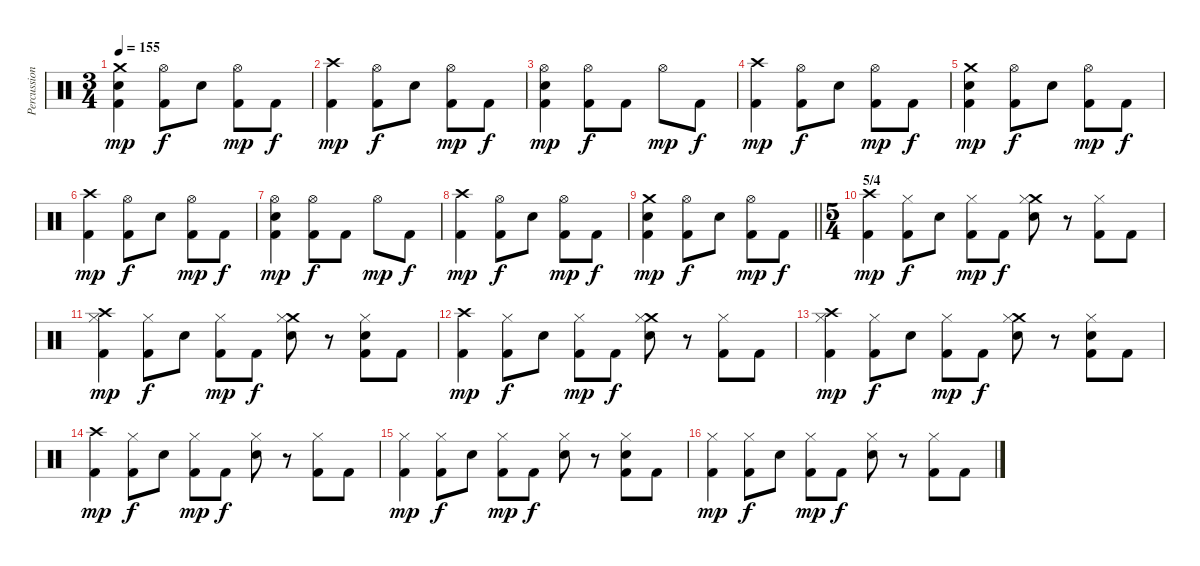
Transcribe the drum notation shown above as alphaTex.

\track ("Percussion" "Percussion") {instrument percussion}
\staff {score}
\articulation defaults
\ts (3 4)
\tempo 155
\clef neutral
\ks c
("Crash medium (hit)" "Snare (hit) 2" "Kick (hit) 2").4{dy mp} ("Hi-Hat (open)" "Kick (hit) 2").8{dy f} "Snare (hit) 2".8 ("Hi-Hat (open)" "Kick (hit) 2").8{dy mp} "Kick (hit) 2".8{dy f} |
("Crash high (hit)" "Kick (hit) 2").4{dy mp} ("Hi-Hat (open)" "Kick (hit) 2").8{dy f} "Snare (hit) 2".8 ("Hi-Hat (open)" "Kick (hit) 2").8{dy mp} "Kick (hit) 2".8{dy f} |
("Hi-Hat (open)" "Snare (hit) 2" "Kick (hit) 2").4{dy mp} ("Hi-Hat (open)" "Kick (hit) 2").8{dy f} "Kick (hit) 2".8 "Hi-Hat (open)".8{dy mp} "Kick (hit) 2".8{dy f} |
("Crash high (hit)" "Kick (hit) 2").4{dy mp} ("Hi-Hat (open)" "Kick (hit) 2").8{dy f} "Snare (hit) 2".8 ("Hi-Hat (open)" "Kick (hit) 2").8{dy mp} "Kick (hit) 2".8{dy f} |
("Crash medium (hit)" "Snare (hit) 2" "Kick (hit) 2").4{dy mp} ("Hi-Hat (open)" "Kick (hit) 2").8{dy f} "Snare (hit) 2".8 ("Hi-Hat (open)" "Kick (hit) 2").8{dy mp} "Kick (hit) 2".8{dy f} |
("Crash high (hit)" "Kick (hit) 2").4{dy mp} ("Hi-Hat (open)" "Kick (hit) 2").8{dy f} "Snare (hit) 2".8 ("Hi-Hat (open)" "Kick (hit) 2").8{dy mp} "Kick (hit) 2".8{dy f} |
("Hi-Hat (open)" "Snare (hit) 2" "Kick (hit) 2").4{dy mp} ("Hi-Hat (open)" "Kick (hit) 2").8{dy f} "Kick (hit) 2".8 "Hi-Hat (open)".8{dy mp} "Kick (hit) 2".8{dy f} |
("Crash high (hit)" "Kick (hit) 2").4{dy mp} ("Hi-Hat (open)" "Kick (hit) 2").8{dy f} "Snare (hit) 2".8 ("Hi-Hat (open)" "Kick (hit) 2").8{dy mp} "Kick (hit) 2".8{dy f} |
\barLineRight lightlight
("Crash medium (hit)" "Snare (hit) 2" "Kick (hit) 2").4{dy mp} ("Hi-Hat (open)" "Kick (hit) 2").8{dy f} "Snare (hit) 2".8 ("Hi-Hat (open)" "Kick (hit) 2").8{dy mp} "Kick (hit) 2".8{dy f} |
\ts (5 4)
\section ("" "5/4")
("Crash high (hit)" "Kick (hit) 2").4{dy mp} ("Hi-Hat (closed)" "Kick (hit) 2").8{dy f} "Snare (hit) 2".8 ("Hi-Hat (closed)" "Kick (hit) 2").8{dy mp} "Kick (hit) 2".8{dy f} ("Crash medium (hit)" "Hi-Hat (closed)" "Snare (hit) 2").8 r.8 ("Hi-Hat (closed)" "Kick (hit) 2").8 "Kick (hit) 2".8 |
("Crash high (hit)" "Hi-Hat (closed)" "Kick (hit) 2").4{dy mp} ("Hi-Hat (closed)" "Kick (hit) 2").8{dy f} "Snare (hit) 2".8 ("Hi-Hat (closed)" "Kick (hit) 2").8{dy mp} "Kick (hit) 2".8{dy f} ("Crash medium (hit)" "Hi-Hat (closed)" "Snare (hit) 2").8 r.8 ("Hi-Hat (closed)" "Snare (hit) 2" "Kick (hit) 2").8 "Kick (hit) 2".8 |
("Crash high (hit)" "Kick (hit) 2").4{dy mp} ("Hi-Hat (closed)" "Kick (hit) 2").8{dy f} "Snare (hit) 2".8 ("Hi-Hat (closed)" "Kick (hit) 2").8{dy mp} "Kick (hit) 2".8{dy f} ("Crash medium (hit)" "Hi-Hat (closed)" "Snare (hit) 2").8 r.8 ("Hi-Hat (closed)" "Kick (hit) 2").8 "Kick (hit) 2".8 |
("Crash high (hit)" "Hi-Hat (closed)" "Kick (hit) 2").4{dy mp} ("Hi-Hat (closed)" "Kick (hit) 2").8{dy f} "Snare (hit) 2".8 ("Hi-Hat (closed)" "Kick (hit) 2").8{dy mp} "Kick (hit) 2".8{dy f} ("Crash medium (hit)" "Hi-Hat (closed)" "Snare (hit) 2").8 r.8 ("Hi-Hat (closed)" "Snare (hit) 2" "Kick (hit) 2").8 "Kick (hit) 2".8 |
("Crash high (hit)" "Kick (hit) 2").4{dy mp} ("Hi-Hat (closed)" "Kick (hit) 2").8{dy f} "Snare (hit) 2".8 ("Hi-Hat (closed)" "Kick (hit) 2").8{dy mp} "Kick (hit) 2".8{dy f} ("Hi-Hat (closed)" "Snare (hit) 2").8 r.8 ("Hi-Hat (closed)" "Kick (hit) 2").8 "Kick (hit) 2".8 |
("Hi-Hat (closed)" "Kick (hit) 2").4{dy mp} ("Hi-Hat (closed)" "Kick (hit) 2").8{dy f} "Snare (hit) 2".8 ("Hi-Hat (closed)" "Kick (hit) 2").8{dy mp} "Kick (hit) 2".8{dy f} ("Hi-Hat (closed)" "Snare (hit) 2").8 r.8 ("Hi-Hat (closed)" "Snare (hit) 2" "Kick (hit) 2").8 "Kick (hit) 2".8 |
("Hi-Hat (closed)" "Kick (hit) 2").4{dy mp} ("Hi-Hat (closed)" "Kick (hit) 2").8{dy f} "Snare (hit) 2".8 ("Hi-Hat (closed)" "Kick (hit) 2").8{dy mp} "Kick (hit) 2".8{dy f} ("Hi-Hat (closed)" "Snare (hit) 2").8 r.8 ("Hi-Hat (closed)" "Kick (hit) 2").8 "Kick (hit) 2".8
